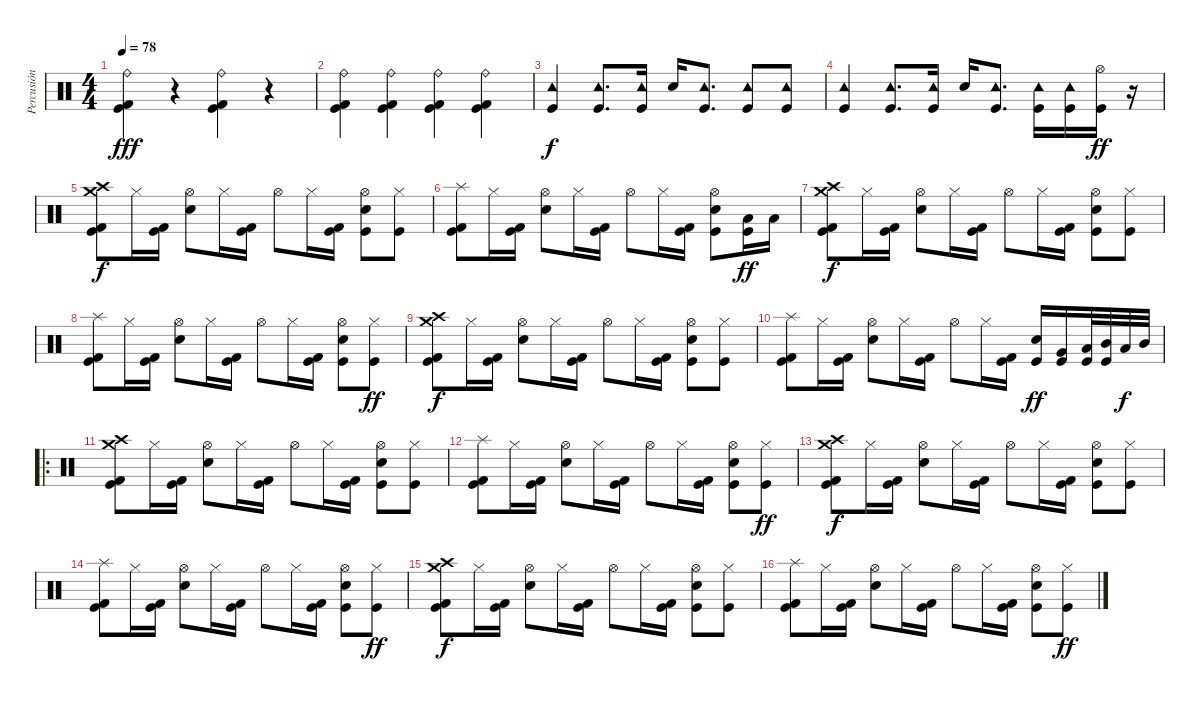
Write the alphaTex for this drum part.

\track ("Percusión" "Percusión") {instrument percussion}
\staff {score}
\articulation defaults
\ts (4 4)
\tempo 78
\clef neutral
\ks c
("Ride (bell)" "Kick (hit) 2" "Kick (hit)").4{dy fff} r.4 ("Ride (bell)" "Kick (hit) 2" "Kick (hit)").4 r.4 |
("Ride (bell)" "Kick (hit) 2" "Kick (hit)").4 ("Ride (bell)" "Kick (hit) 2" "Kick (hit)").4 ("Ride (bell)" "Kick (hit) 2" "Kick (hit)").4 ("Ride (bell)" "Kick (hit) 2" "Kick (hit)").4 |
("Tambourine (hit)" "Kick (hit)").4{dy f} ("Tambourine (hit)" "Kick (hit)").8{d} ("Tambourine (hit)" "Kick (hit)").16 "Snare (hit)".16 ("Tambourine (hit)" "Kick (hit)").8{d} ("Tambourine (hit)" "Kick (hit)").8 ("Tambourine (hit)" "Kick (hit)").8 |
("Tambourine (hit)" "Kick (hit)").4 ("Tambourine (hit)" "Kick (hit)").8{d} ("Tambourine (hit)" "Kick (hit)").16 "Snare (hit)".16 ("Tambourine (hit)" "Kick (hit)").8{d} ("Tambourine (hit)" "Kick (hit)").16 ("Tambourine (hit)" "Kick (hit)").16 ("Hi-Hat (open)" "Kick (hit)").16{dy ff} r.16 |
("Crash high (hit)" "Crash medium (hit)" "Kick (hit) 2" "Kick (hit)").8{dy f} "Hi-Hat (closed)".16 ("Kick (hit) 2" "Kick (hit)").16 ("Hi-Hat (open)" "Snare (hit) 2").8 "Hi-Hat (closed)".16 ("Kick (hit) 2" "Kick (hit)").16 "Hi-Hat (open)".8 "Hi-Hat (closed)".16 ("Kick (hit)" "Kick (hit) 2").16 ("Hi-Hat (open)" "Snare (hit) 2" "Kick (hit)").8 ("Hi-Hat (closed)" "Kick (hit)").8 |
("Splash (hit)" "Kick (hit) 2" "Kick (hit)").8 "Hi-Hat (closed)".16 ("Kick (hit) 2" "Kick (hit)").16 ("Hi-Hat (open)" "Snare (hit) 2").8 "Hi-Hat (closed)".16 ("Kick (hit) 2" "Kick (hit)").16 "Hi-Hat (open)".8 "Hi-Hat (closed)".16 ("Kick (hit)" "Kick (hit) 2").16 ("Hi-Hat (open)" "Snare (hit) 2" "Kick (hit)").8 ("Low Floor Tom (hit)" "Kick (hit)").16{dy ff} "Low Tom (hit)".16 |
("Crash high (hit)" "Crash medium (hit)" "Kick (hit) 2" "Kick (hit)").8{dy f} "Hi-Hat (closed)".16 ("Kick (hit) 2" "Kick (hit)").16 ("Hi-Hat (open)" "Snare (hit) 2").8 "Hi-Hat (closed)".16 ("Kick (hit) 2" "Kick (hit)").16 "Hi-Hat (open)".8 "Hi-Hat (closed)".16 ("Kick (hit)" "Kick (hit) 2").16 ("Hi-Hat (open)" "Snare (hit) 2" "Kick (hit)").8 ("Hi-Hat (closed)" "Kick (hit)").8 |
("Splash (hit)" "Kick (hit) 2" "Kick (hit)").8 "Hi-Hat (closed)".16 ("Kick (hit) 2" "Kick (hit)").16 ("Hi-Hat (open)" "Snare (hit) 2").8 "Hi-Hat (closed)".16 ("Kick (hit) 2" "Kick (hit)").16 "Hi-Hat (open)".8 "Hi-Hat (closed)".16 ("Kick (hit)" "Kick (hit) 2").16 ("Hi-Hat (open)" "Snare (hit) 2" "Kick (hit)").8 ("Hi-Hat (closed)" "Kick (hit)").8{dy ff} |
("Crash high (hit)" "Crash medium (hit)" "Kick (hit) 2" "Kick (hit)").8{dy f} "Hi-Hat (closed)".16 ("Kick (hit) 2" "Kick (hit)").16 ("Hi-Hat (open)" "Snare (hit) 2").8 "Hi-Hat (closed)".16 ("Kick (hit) 2" "Kick (hit)").16 "Hi-Hat (open)".8 "Hi-Hat (closed)".16 ("Kick (hit)" "Kick (hit) 2").16 ("Hi-Hat (open)" "Snare (hit) 2" "Kick (hit)").8 ("Hi-Hat (closed)" "Kick (hit)").8 |
("Splash (hit)" "Kick (hit) 2" "Kick (hit)").8 "Hi-Hat (closed)".16 ("Kick (hit) 2" "Kick (hit)").16 ("Hi-Hat (open)" "Snare (hit) 2").8 "Hi-Hat (closed)".16 ("Kick (hit) 2" "Kick (hit)").16 "Hi-Hat (open)".8 "Hi-Hat (closed)".16 ("Kick (hit)" "Kick (hit) 2").16 ("Snare (hit) 2" "Kick (hit)").16{dy ff} ("Very Low Tom (hit)" "Kick (hit)").16 ("Low Tom (hit)" "Kick (hit)").32 ("Mid Tom (hit)" "Kick (hit)").32 "Low Tom (hit)".32{dy f} "Mid Tom (hit)".32 |
\ro
("Crash high (hit)" "Crash medium (hit)" "Kick (hit) 2" "Kick (hit)").8 "Hi-Hat (closed)".16 ("Kick (hit) 2" "Kick (hit)").16 ("Hi-Hat (open)" "Snare (hit) 2").8 "Hi-Hat (closed)".16 ("Kick (hit) 2" "Kick (hit)").16 "Hi-Hat (open)".8 "Hi-Hat (closed)".16 ("Kick (hit)" "Kick (hit) 2").16 ("Hi-Hat (open)" "Snare (hit) 2" "Kick (hit)").8 ("Hi-Hat (closed)" "Kick (hit)").8 |
("Splash (hit)" "Kick (hit) 2" "Kick (hit)").8 "Hi-Hat (closed)".16 ("Kick (hit) 2" "Kick (hit)").16 ("Hi-Hat (open)" "Snare (hit) 2").8 "Hi-Hat (closed)".16 ("Kick (hit) 2" "Kick (hit)").16 "Hi-Hat (open)".8 "Hi-Hat (closed)".16 ("Kick (hit)" "Kick (hit) 2").16 ("Hi-Hat (open)" "Snare (hit) 2" "Kick (hit)").8 ("Hi-Hat (closed)" "Kick (hit)").8{dy ff} |
("Crash high (hit)" "Crash medium (hit)" "Kick (hit) 2" "Kick (hit)").8{dy f} "Hi-Hat (closed)".16 ("Kick (hit) 2" "Kick (hit)").16 ("Hi-Hat (open)" "Snare (hit) 2").8 "Hi-Hat (closed)".16 ("Kick (hit) 2" "Kick (hit)").16 "Hi-Hat (open)".8 "Hi-Hat (closed)".16 ("Kick (hit)" "Kick (hit) 2").16 ("Hi-Hat (open)" "Snare (hit) 2" "Kick (hit)").8 ("Hi-Hat (closed)" "Kick (hit)").8 |
("Splash (hit)" "Kick (hit) 2" "Kick (hit)").8 "Hi-Hat (closed)".16 ("Kick (hit) 2" "Kick (hit)").16 ("Hi-Hat (open)" "Snare (hit) 2").8 "Hi-Hat (closed)".16 ("Kick (hit) 2" "Kick (hit)").16 "Hi-Hat (open)".8 "Hi-Hat (closed)".16 ("Kick (hit)" "Kick (hit) 2").16 ("Hi-Hat (open)" "Snare (hit) 2" "Kick (hit)").8 ("Hi-Hat (closed)" "Kick (hit)").8{dy ff} |
("Crash high (hit)" "Crash medium (hit)" "Kick (hit) 2" "Kick (hit)").8{dy f} "Hi-Hat (closed)".16 ("Kick (hit) 2" "Kick (hit)").16 ("Hi-Hat (open)" "Snare (hit) 2").8 "Hi-Hat (closed)".16 ("Kick (hit) 2" "Kick (hit)").16 "Hi-Hat (open)".8 "Hi-Hat (closed)".16 ("Kick (hit)" "Kick (hit) 2").16 ("Hi-Hat (open)" "Snare (hit) 2" "Kick (hit)").8 ("Hi-Hat (closed)" "Kick (hit)").8 |
("Splash (hit)" "Kick (hit) 2" "Kick (hit)").8 "Hi-Hat (closed)".16 ("Kick (hit) 2" "Kick (hit)").16 ("Hi-Hat (open)" "Snare (hit) 2").8 "Hi-Hat (closed)".16 ("Kick (hit) 2" "Kick (hit)").16 "Hi-Hat (open)".8 "Hi-Hat (closed)".16 ("Kick (hit)" "Kick (hit) 2").16 ("Hi-Hat (open)" "Snare (hit) 2" "Kick (hit)").8 ("Hi-Hat (closed)" "Kick (hit)").8{dy ff}
